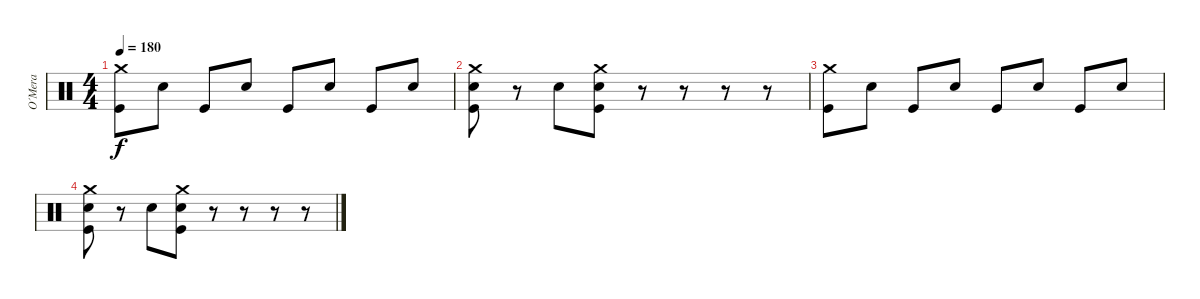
\track ("O´Mera" "O´Mera") {instrument percussion}
\staff {score}
\articulation defaults
\ts (4 4)
\tempo 180
\clef neutral
\ks c
("Crash medium (hit)" "Kick (hit)").8{dy f} "Electric Snare (hit)".8 "Kick (hit)".8 "Electric Snare (hit)".8 "Kick (hit)".8 "Electric Snare (hit)".8 "Kick (hit)".8 "Electric Snare (hit)".8 |
("Crash medium (hit)" "Electric Snare (hit)" "Kick (hit)").8 r.8 "Electric Snare (hit)".8 ("Crash medium (hit)" "Electric Snare (hit)" "Kick (hit)").8 r.8 r.8 r.8 r.8 |
("Crash medium (hit)" "Kick (hit)").8 "Electric Snare (hit)".8 "Kick (hit)".8 "Electric Snare (hit)".8 "Kick (hit)".8 "Electric Snare (hit)".8 "Kick (hit)".8 "Electric Snare (hit)".8 |
("Crash medium (hit)" "Electric Snare (hit)" "Kick (hit)").8 r.8 "Electric Snare (hit)".8 ("Crash medium (hit)" "Electric Snare (hit)" "Kick (hit)").8 r.8 r.8 r.8 r.8
